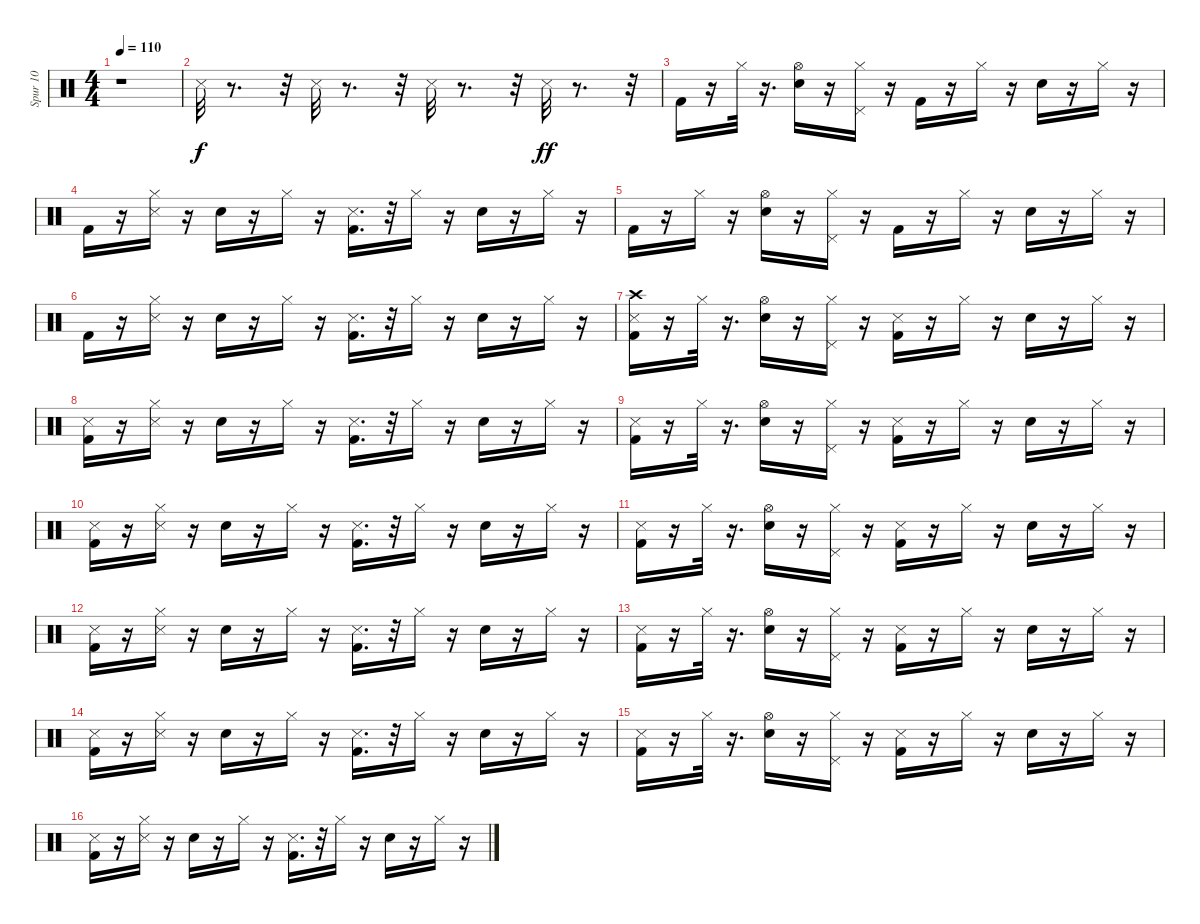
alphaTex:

\track ("Spur 10" "Spur 10") {instrument percussion}
\staff {score}
\articulation defaults
\ts (4 4)
\tempo 110
\clef neutral
\ks c
r.1{dy f} |
"Snare (side stick) 3".32 r.8{d} r.32 "Snare (side stick) 3".32 r.8{d} r.32 "Snare (side stick) 3".32 r.8{d} r.32 "Snare (side stick) 3".32{dy ff} r.8{d} r.32 |
"Kick (hit) 2".16 r.16 "Hi-Hat (closed)".32 r.16{d} ("Electric Snare (hit)" "Hi-Hat (open)").16 r.16 ("Hi-Hat (closed)" "Pedal Hi-Hat (hit)").16 r.16 "Kick (hit) 2".16 r.16 "Hi-Hat (closed)".16 r.16 "Electric Snare (hit)".16 r.16 "Hi-Hat (closed)".16 r.16 |
"Kick (hit) 2".16 r.16 ("Snare (side stick) 3" "Hi-Hat (closed)").16 r.16 "Electric Snare (hit)".16 r.16 "Hi-Hat (closed)".16 r.16 ("Kick (hit) 2" "Snare (side stick) 3").16{d} r.32 "Hi-Hat (closed)".16 r.16 "Electric Snare (hit)".16 r.16 "Hi-Hat (closed)".16 r.16 |
"Kick (hit) 2".16 r.16 "Hi-Hat (closed)".16 r.16 ("Electric Snare (hit)" "Hi-Hat (open)").16 r.16 ("Hi-Hat (closed)" "Pedal Hi-Hat (hit)").16 r.16 "Kick (hit) 2".16 r.16 "Hi-Hat (closed)".16 r.16 "Electric Snare (hit)".16 r.16 "Hi-Hat (closed)".16 r.16 |
"Kick (hit) 2".16 r.16 ("Snare (side stick) 3" "Hi-Hat (closed)").16 r.16 "Electric Snare (hit)".16 r.16 "Hi-Hat (closed)".16 r.16 ("Kick (hit) 2" "Snare (side stick) 3").16{d} r.32 "Hi-Hat (closed)".16 r.16 "Electric Snare (hit)".16 r.16 "Hi-Hat (closed)".16 r.16 |
("Kick (hit) 2" "Snare (side stick) 3" "Crash high (hit)").16 r.16 "Hi-Hat (closed)".32 r.16{d} ("Electric Snare (hit)" "Hi-Hat (open)").16 r.16 ("Hi-Hat (closed)" "Pedal Hi-Hat (hit)").16 r.16 ("Kick (hit) 2" "Snare (side stick) 3").16 r.16 "Hi-Hat (closed)".16 r.16 "Electric Snare (hit)".16 r.16 "Hi-Hat (closed)".16 r.16 |
("Kick (hit) 2" "Snare (side stick) 3").16 r.16 ("Snare (side stick) 3" "Hi-Hat (closed)").16 r.16 "Electric Snare (hit)".16 r.16 "Hi-Hat (closed)".16 r.16 ("Kick (hit) 2" "Snare (side stick) 3").16{d} r.32 "Hi-Hat (closed)".16 r.16 "Electric Snare (hit)".16 r.16 "Hi-Hat (closed)".16 r.16 |
("Kick (hit) 2" "Snare (side stick) 3").16 r.16 "Hi-Hat (closed)".32 r.16{d} ("Electric Snare (hit)" "Hi-Hat (open)").16 r.16 ("Hi-Hat (closed)" "Pedal Hi-Hat (hit)").16 r.16 ("Kick (hit) 2" "Snare (side stick) 3").16 r.16 "Hi-Hat (closed)".16 r.16 "Electric Snare (hit)".16 r.16 "Hi-Hat (closed)".16 r.16 |
("Kick (hit) 2" "Snare (side stick) 3").16 r.16 ("Snare (side stick) 3" "Hi-Hat (closed)").16 r.16 "Electric Snare (hit)".16 r.16 "Hi-Hat (closed)".16 r.16 ("Kick (hit) 2" "Snare (side stick) 3").16{d} r.32 "Hi-Hat (closed)".16 r.16 "Electric Snare (hit)".16 r.16 "Hi-Hat (closed)".16 r.16 |
("Kick (hit) 2" "Snare (side stick) 3").16 r.16 "Hi-Hat (closed)".32 r.16{d} ("Electric Snare (hit)" "Hi-Hat (open)").16 r.16 ("Hi-Hat (closed)" "Pedal Hi-Hat (hit)").16 r.16 ("Kick (hit) 2" "Snare (side stick) 3").16 r.16 "Hi-Hat (closed)".16 r.16 "Electric Snare (hit)".16 r.16 "Hi-Hat (closed)".16 r.16 |
("Kick (hit) 2" "Snare (side stick) 3").16 r.16 ("Snare (side stick) 3" "Hi-Hat (closed)").16 r.16 "Electric Snare (hit)".16 r.16 "Hi-Hat (closed)".16 r.16 ("Kick (hit) 2" "Snare (side stick) 3").16{d} r.32 "Hi-Hat (closed)".16 r.16 "Electric Snare (hit)".16 r.16 "Hi-Hat (closed)".16 r.16 |
("Kick (hit) 2" "Snare (side stick) 3").16 r.16 "Hi-Hat (closed)".32 r.16{d} ("Electric Snare (hit)" "Hi-Hat (open)").16 r.16 ("Hi-Hat (closed)" "Pedal Hi-Hat (hit)").16 r.16 ("Kick (hit) 2" "Snare (side stick) 3").16 r.16 "Hi-Hat (closed)".16 r.16 "Electric Snare (hit)".16 r.16 "Hi-Hat (closed)".16 r.16 |
("Kick (hit) 2" "Snare (side stick) 3").16 r.16 ("Snare (side stick) 3" "Hi-Hat (closed)").16 r.16 "Electric Snare (hit)".16 r.16 "Hi-Hat (closed)".16 r.16 ("Kick (hit) 2" "Snare (side stick) 3").16{d} r.32 "Hi-Hat (closed)".16 r.16 "Electric Snare (hit)".16 r.16 "Hi-Hat (closed)".16 r.16 |
("Kick (hit) 2" "Snare (side stick) 3").16 r.16 "Hi-Hat (closed)".32 r.16{d} ("Electric Snare (hit)" "Hi-Hat (open)").16 r.16 ("Hi-Hat (closed)" "Pedal Hi-Hat (hit)").16 r.16 ("Kick (hit) 2" "Snare (side stick) 3").16 r.16 "Hi-Hat (closed)".16 r.16 "Electric Snare (hit)".16 r.16 "Hi-Hat (closed)".16 r.16 |
("Kick (hit) 2" "Snare (side stick) 3").16 r.16 ("Snare (side stick) 3" "Hi-Hat (closed)").16 r.16 "Electric Snare (hit)".16 r.16 "Hi-Hat (closed)".16 r.16 ("Kick (hit) 2" "Snare (side stick) 3").16{d} r.32 "Hi-Hat (closed)".16 r.16 "Electric Snare (hit)".16 r.16 "Hi-Hat (closed)".16 r.16
